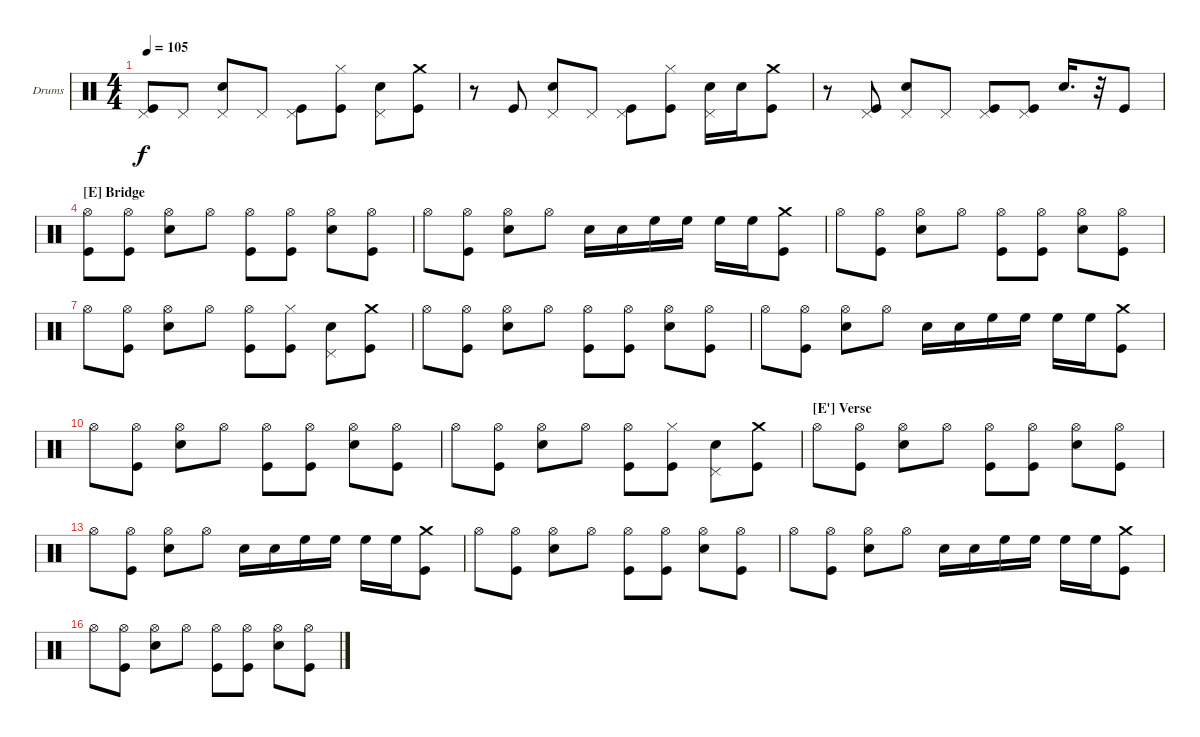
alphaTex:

\bracketExtendMode nobrackets
\firstSystemTrackNameOrientation horizontal
\otherSystemsTrackNameOrientation horizontal
\defaultBarNumberDisplay FirstOfSystem
\track ("Drumkit" "Drums") {instrument percussion}
\staff {score}
\articulation defaults
\ts (4 4)
\tempo 105
\clef neutral
\ks c
("Kick (hit)" "Pedal Hi-Hat (hit)").8{dy f} "Pedal Hi-Hat (hit)".8 ("Snare (hit) 2" "Pedal Hi-Hat (hit)").8 "Pedal Hi-Hat (hit)".8 ("Kick (hit)" "Pedal Hi-Hat (hit)").8 ("Kick (hit)" "Hi-Hat (closed)").8 ("Snare (hit) 2" "Pedal Hi-Hat (hit)").8 ("Kick (hit)" "Crash medium (hit)").8 |
r.8 "Kick (hit)".8 ("Snare (hit) 2" "Pedal Hi-Hat (hit)").8 "Pedal Hi-Hat (hit)".8 ("Kick (hit)" "Pedal Hi-Hat (hit)").8 ("Kick (hit)" "Hi-Hat (closed)").8 ("Snare (hit) 2" "Pedal Hi-Hat (hit)").16 "Snare (hit) 2".16 ("Kick (hit)" "Crash medium (hit)").8 |
r.8 ("Kick (hit)" "Pedal Hi-Hat (hit)").8 ("Snare (hit) 2" "Pedal Hi-Hat (hit)").8 "Pedal Hi-Hat (hit)".8 ("Kick (hit)" "Pedal Hi-Hat (hit)").8 ("Kick (hit)" "Pedal Hi-Hat (hit)").8 "Snare (hit) 2".16{d} r.32 "Kick (hit)".8 |
\section ("E" "Bridge")
\scale
0.295237 ("Kick (hit)" "Hi-Hat (open)").8 ("Kick (hit)" "Hi-Hat (open)").8 ("Snare (hit) 2" "Hi-Hat (open)").8 "Hi-Hat (open)".8 ("Kick (hit)" "Hi-Hat (open)").8 ("Kick (hit)" "Hi-Hat (open)").8 ("Snare (hit) 2" "Hi-Hat (open)").8 ("Kick (hit)" "Hi-Hat (open)").8 |
\scale
0.247824 "Hi-Hat (open)".8 ("Kick (hit)" "Hi-Hat (open)").8 ("Snare (hit) 2" "Hi-Hat (open)").8 "Hi-Hat (open)".8 "Snare (hit) 2".16 "Snare (hit) 2".16 "High Floor Tom (hit)".16 "High Floor Tom (hit)".16 "High Floor Tom (hit)".16 "High Floor Tom (hit)".16 ("Kick (hit)" "Crash medium (hit)").8 |
\scale
0.229826 "Hi-Hat (open)".8 ("Kick (hit)" "Hi-Hat (open)").8 ("Snare (hit) 2" "Hi-Hat (open)").8 "Hi-Hat (open)".8 ("Kick (hit)" "Hi-Hat (open)").8 ("Kick (hit)" "Hi-Hat (open)").8 ("Snare (hit) 2" "Hi-Hat (open)").8 ("Kick (hit)" "Hi-Hat (open)").8 |
\scale
0.226953 "Hi-Hat (open)".8 ("Kick (hit)" "Hi-Hat (open)").8 ("Snare (hit) 2" "Hi-Hat (open)").8 "Hi-Hat (open)".8 ("Kick (hit)" "Hi-Hat (open)").8 ("Kick (hit)" "Hi-Hat (closed)").8 ("Snare (hit) 2" "Pedal Hi-Hat (hit)").8 ("Kick (hit)" "Crash medium (hit)").8 |
"Hi-Hat (open)".8 ("Kick (hit)" "Hi-Hat (open)").8 ("Snare (hit) 2" "Hi-Hat (open)").8 "Hi-Hat (open)".8 ("Kick (hit)" "Hi-Hat (open)").8 ("Kick (hit)" "Hi-Hat (open)").8 ("Snare (hit) 2" "Hi-Hat (open)").8 ("Kick (hit)" "Hi-Hat (open)").8 |
"Hi-Hat (open)".8 ("Kick (hit)" "Hi-Hat (open)").8 ("Snare (hit) 2" "Hi-Hat (open)").8 "Hi-Hat (open)".8 "Snare (hit) 2".16 "Snare (hit) 2".16 "High Floor Tom (hit)".16 "High Floor Tom (hit)".16 "High Floor Tom (hit)".16 "High Floor Tom (hit)".16 ("Kick (hit)" "Crash medium (hit)").8 |
"Hi-Hat (open)".8 ("Kick (hit)" "Hi-Hat (open)").8 ("Snare (hit) 2" "Hi-Hat (open)").8 "Hi-Hat (open)".8 ("Kick (hit)" "Hi-Hat (open)").8 ("Kick (hit)" "Hi-Hat (open)").8 ("Snare (hit) 2" "Hi-Hat (open)").8 ("Kick (hit)" "Hi-Hat (open)").8 |
"Hi-Hat (open)".8 ("Kick (hit)" "Hi-Hat (open)").8 ("Snare (hit) 2" "Hi-Hat (open)").8 "Hi-Hat (open)".8 ("Kick (hit)" "Hi-Hat (open)").8 ("Kick (hit)" "Hi-Hat (closed)").8 ("Snare (hit) 2" "Pedal Hi-Hat (hit)").8 ("Kick (hit)" "Crash medium (hit)").8 |
\section ("E'" "Verse")
"Hi-Hat (open)".8 ("Kick (hit)" "Hi-Hat (open)").8 ("Snare (hit) 2" "Hi-Hat (open)").8 "Hi-Hat (open)".8 ("Kick (hit)" "Hi-Hat (open)").8 ("Kick (hit)" "Hi-Hat (open)").8 ("Snare (hit) 2" "Hi-Hat (open)").8 ("Kick (hit)" "Hi-Hat (open)").8 |
"Hi-Hat (open)".8 ("Kick (hit)" "Hi-Hat (open)").8 ("Snare (hit) 2" "Hi-Hat (open)").8 "Hi-Hat (open)".8 "Snare (hit) 2".16 "Snare (hit) 2".16 "High Floor Tom (hit)".16 "High Floor Tom (hit)".16 "High Floor Tom (hit)".16 "High Floor Tom (hit)".16 ("Kick (hit)" "Crash medium (hit)").8 |
"Hi-Hat (open)".8 ("Kick (hit)" "Hi-Hat (open)").8 ("Snare (hit) 2" "Hi-Hat (open)").8 "Hi-Hat (open)".8 ("Kick (hit)" "Hi-Hat (open)").8 ("Kick (hit)" "Hi-Hat (open)").8 ("Snare (hit) 2" "Hi-Hat (open)").8 ("Kick (hit)" "Hi-Hat (open)").8 |
"Hi-Hat (open)".8 ("Kick (hit)" "Hi-Hat (open)").8 ("Snare (hit) 2" "Hi-Hat (open)").8 "Hi-Hat (open)".8 "Snare (hit) 2".16 "Snare (hit) 2".16 "High Floor Tom (hit)".16 "High Floor Tom (hit)".16 "High Floor Tom (hit)".16 "High Floor Tom (hit)".16 ("Kick (hit)" "Crash medium (hit)").8 |
"Hi-Hat (open)".8 ("Kick (hit)" "Hi-Hat (open)").8 ("Snare (hit) 2" "Hi-Hat (open)").8 "Hi-Hat (open)".8 ("Kick (hit)" "Hi-Hat (open)").8 ("Kick (hit)" "Hi-Hat (open)").8 ("Snare (hit) 2" "Hi-Hat (open)").8 ("Kick (hit)" "Hi-Hat (open)").8
